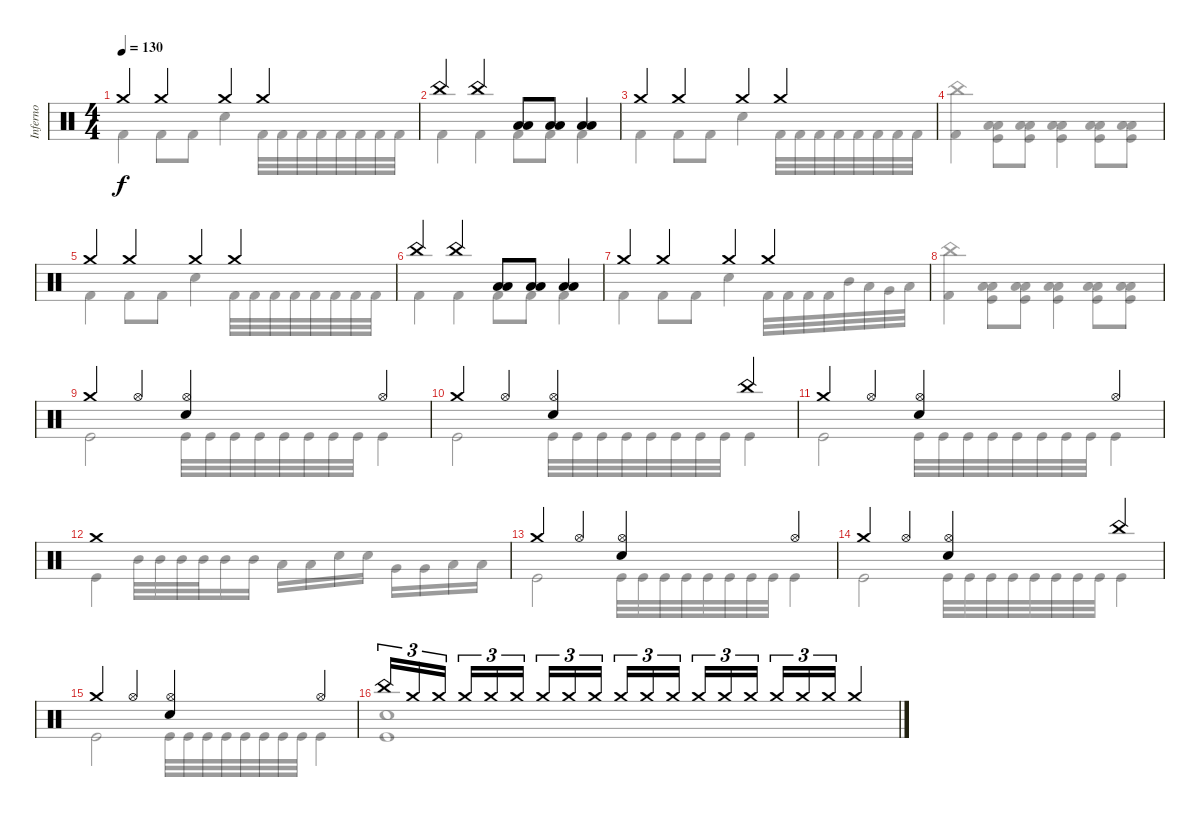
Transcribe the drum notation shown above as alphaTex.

\track ("Inferno" "Inferno") {instrument percussion}
\staff {score}
\articulation defaults
\voice
\ts (4 4)
\tempo 130
\clef neutral
\ks c "Crash medium (hit)".4{dy f} "Crash medium (hit)".4 "Crash medium (hit)".4 "Crash medium (hit)".4
|
"China (hit)".4 "China (hit)".4 ("Low Floor Tom (hit)" "Low Tom (hit)").8 ("Low Floor Tom (hit)" "Low Tom (hit)").8 ("Low Floor Tom (hit)" "Low Tom (hit)").4 |
"Crash medium (hit)".4 "Crash medium (hit)".4 "Crash medium (hit)".4 "Crash medium (hit)".4 |
|
"Crash medium (hit)".4 "Crash medium (hit)".4 "Crash medium (hit)".4 "Crash medium (hit)".4 |
"China (hit)".4 "China (hit)".4 ("Low Floor Tom (hit)" "Low Tom (hit)").8 ("Low Floor Tom (hit)" "Low Tom (hit)").8 ("Low Floor Tom (hit)" "Low Tom (hit)").4 |
"Crash medium (hit)".4 "Crash medium (hit)".4 "Crash medium (hit)".4 "Crash medium (hit)".4 |
|
"Crash medium (hit)".4 "Hi-Hat (open)".4 ("Hi-Hat (open)" "Snare (hit) 2").4 "Hi-Hat (open)".4 |
"Crash medium (hit)".4 "Hi-Hat (open)".4 ("Hi-Hat (open)" "Snare (hit) 2").4 "China (hit)".4 |
"Crash medium (hit)".4 "Hi-Hat (open)".4 ("Hi-Hat (open)" "Snare (hit) 2").4 "Hi-Hat (open)".4 |
"Crash medium (hit)".1 |
"Crash medium (hit)".4 "Hi-Hat (open)".4 ("Hi-Hat (open)" "Snare (hit) 2").4 "Hi-Hat (open)".4 |
"Crash medium (hit)".4 "Hi-Hat (open)".4 ("Hi-Hat (open)" "Snare (hit) 2").4 "China (hit)".4 |
"Crash medium (hit)".4 "Hi-Hat (open)".4 ("Hi-Hat (open)" "Snare (hit) 2").4 "Hi-Hat (open)".4 |
"China (hit)".16{tu (3 2)} "Crash medium (hit)".16{tu (3 2)} "Crash medium (hit)".16{tu (3 2) beam splitsecondary} "Crash medium (hit)".16{tu (3 2)} "Crash medium (hit)".16{tu (3 2)} "Crash medium (hit)".16{tu (3 2)} "Crash medium (hit)".16{tu (3 2)} "Crash medium (hit)".16{tu (3 2)} "Crash medium (hit)".16{tu (3 2) beam splitsecondary} "Crash medium (hit)".16{tu (3 2)} "Crash medium (hit)".16{tu (3 2)} "Crash medium (hit)".16{tu (3 2)} "Crash medium (hit)".16{tu (3 2)} "Crash medium (hit)".16{tu (3 2)} "Crash medium (hit)".16{tu (3 2) beam splitsecondary} "Crash medium (hit)".16{tu (3 2)} "Crash medium (hit)".16{tu (3 2)} "Crash medium (hit)".16{tu (3 2)} "Crash medium (hit)".4
\voice
\clef neutral
\ottava regular
\simile none
\ks c "Kick (hit) 2".4{dy f} "Kick (hit) 2".8 "Kick (hit) 2".8 "Snare (hit) 2".4 "Kick (hit) 2".32 "Kick (hit) 2".32 "Kick (hit) 2".32 "Kick (hit) 2".32 "Kick (hit) 2".32 "Kick (hit) 2".32 "Kick (hit) 2".32 "Kick (hit) 2".32
|
"Kick (hit) 2".4 "Kick (hit) 2".4 "Kick (hit) 2".8 "Kick (hit) 2".8 "Kick (hit) 2".4 |
"Kick (hit) 2".4 "Kick (hit) 2".8 "Kick (hit) 2".8 "Snare (hit) 2".4 "Kick (hit) 2".32 "Kick (hit) 2".32 "Kick (hit) 2".32 "Kick (hit) 2".32 "Kick (hit) 2".32 "Kick (hit) 2".32 "Kick (hit) 2".32 "Kick (hit) 2".32 |
("Kick (hit) 2" "China (hit)").4 ("Kick (hit)" "Low Floor Tom (hit)" "Low Tom (hit)").8 ("Kick (hit)" "Low Floor Tom (hit)" "Low Tom (hit)").8 ("Kick (hit)" "Low Floor Tom (hit)" "Low Tom (hit)").4 ("Kick (hit)" "Low Floor Tom (hit)" "Low Tom (hit)").8 ("Kick (hit)" "Low Floor Tom (hit)" "Low Tom (hit)").8 |
"Kick (hit) 2".4 "Kick (hit) 2".8 "Kick (hit) 2".8 "Snare (hit) 2".4 "Kick (hit) 2".32 "Kick (hit) 2".32 "Kick (hit) 2".32 "Kick (hit) 2".32 "Kick (hit) 2".32 "Kick (hit) 2".32 "Kick (hit) 2".32 "Kick (hit) 2".32 |
"Kick (hit) 2".4 "Kick (hit) 2".4 "Kick (hit) 2".8 "Kick (hit) 2".8 "Kick (hit) 2".4 |
"Kick (hit) 2".4 "Kick (hit) 2".8 "Kick (hit) 2".8 "Snare (hit) 2".4 "Kick (hit) 2".32 "Kick (hit) 2".32 "Kick (hit) 2".32 "Kick (hit) 2".32 "Mid Tom (hit)".32 "Low Tom (hit)".32 "Very Low Tom (hit)".32 "Low Floor Tom (hit)".32 |
("Kick (hit) 2" "China (hit)").4 ("Kick (hit)" "Low Floor Tom (hit)" "Low Tom (hit)").8 ("Kick (hit)" "Low Floor Tom (hit)" "Low Tom (hit)").8 ("Kick (hit)" "Low Floor Tom (hit)" "Low Tom (hit)").4 ("Kick (hit)" "Low Floor Tom (hit)" "Low Tom (hit)").8 ("Kick (hit)" "Low Floor Tom (hit)" "Low Tom (hit)").8 |
"Kick (hit)".2 "Kick (hit)".32 "Kick (hit)".32 "Kick (hit)".32 "Kick (hit)".32 "Kick (hit)".32 "Kick (hit)".32 "Kick (hit)".32 "Kick (hit)".32 "Kick (hit)".4 |
"Kick (hit)".2 "Kick (hit)".32 "Kick (hit)".32 "Kick (hit)".32 "Kick (hit)".32 "Kick (hit)".32 "Kick (hit)".32 "Kick (hit)".32 "Kick (hit)".32 "Kick (hit)".4 |
"Kick (hit)".2 "Kick (hit)".32 "Kick (hit)".32 "Kick (hit)".32 "Kick (hit)".32 "Kick (hit)".32 "Kick (hit)".32 "Kick (hit)".32 "Kick (hit)".32 "Kick (hit)".4 |
"Kick (hit)".4 "Mid Tom (hit)".32 "Mid Tom (hit)".32 "Mid Tom (hit)".32 "Mid Tom (hit)".32 "Mid Tom (hit)".16 "Mid Tom (hit)".16 "Low Tom (hit)".16 "Low Tom (hit)".16 "Snare (hit) 2".16 "Snare (hit) 2".16 "Very Low Tom (hit)".16 "Very Low Tom (hit)".16 "Low Floor Tom (hit)".16 "Low Floor Tom (hit)".16 |
"Kick (hit)".2 "Kick (hit)".32 "Kick (hit)".32 "Kick (hit)".32 "Kick (hit)".32 "Kick (hit)".32 "Kick (hit)".32 "Kick (hit)".32 "Kick (hit)".32 "Kick (hit)".4 |
"Kick (hit)".2 "Kick (hit)".32 "Kick (hit)".32 "Kick (hit)".32 "Kick (hit)".32 "Kick (hit)".32 "Kick (hit)".32 "Kick (hit)".32 "Kick (hit)".32 "Kick (hit)".4 |
"Kick (hit)".2 "Kick (hit)".32 "Kick (hit)".32 "Kick (hit)".32 "Kick (hit)".32 "Kick (hit)".32 "Kick (hit)".32 "Kick (hit)".32 "Kick (hit)".32 "Kick (hit)".4 |
("Kick (hit)" "Snare (hit) 2").1
